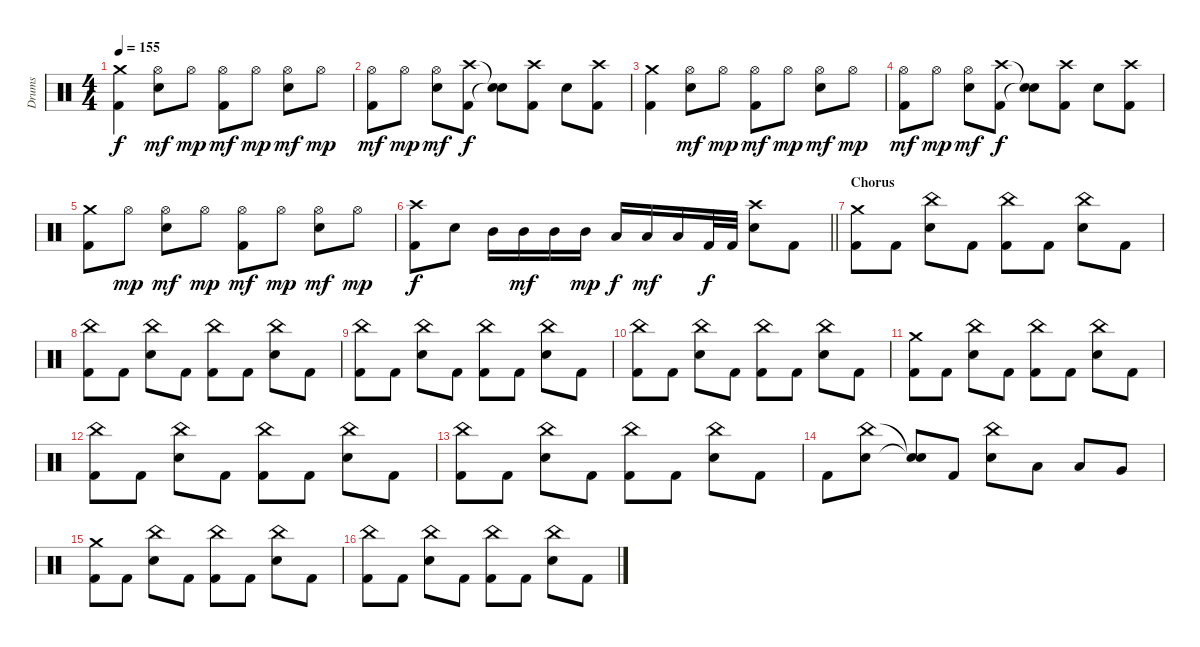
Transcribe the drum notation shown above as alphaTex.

\track ("Drums" "Drums") {instrument percussion}
\staff {score}
\articulation defaults
\ts (4 4)
\tempo 155
\clef neutral
\ks c
("Kick (hit) 2" "Crash medium (hit)").4{dy f} ("Hi-Hat (open)" "Electric Snare (hit)").8{dy mf} "Hi-Hat (open)".8{dy mp} ("Kick (hit) 2" "Hi-Hat (open)").8{dy mf} "Hi-Hat (open)".8{dy mp} ("Hi-Hat (open)" "Electric Snare (hit)").8{dy mf} "Hi-Hat (open)".8{dy mp} |
("Kick (hit) 2" "Hi-Hat (open)").8{dy mf} "Hi-Hat (open)".8{dy mp} ("Hi-Hat (open)" "Electric Snare (hit)").8{dy mf} ("Kick (hit) 2" "Crash high (hit)").8{dy f} ("Snare (hit)"{t} "Snare (hit)"{t}).8 ("Kick (hit) 2" "Crash high (hit)").8 "Electric Snare (hit)".8 ("Kick (hit) 2" "Crash high (hit)").8 |
("Kick (hit) 2" "Crash medium (hit)").4 ("Hi-Hat (open)" "Electric Snare (hit)").8{dy mf} "Hi-Hat (open)".8{dy mp} ("Kick (hit) 2" "Hi-Hat (open)").8{dy mf} "Hi-Hat (open)".8{dy mp} ("Hi-Hat (open)" "Electric Snare (hit)").8{dy mf} "Hi-Hat (open)".8{dy mp} |
("Kick (hit) 2" "Hi-Hat (open)").8{dy mf} "Hi-Hat (open)".8{dy mp} ("Hi-Hat (open)" "Electric Snare (hit)").8{dy mf} ("Kick (hit) 2" "Crash high (hit)").8{dy f} ("Snare (hit)"{t} "Snare (hit)"{t}).8 ("Kick (hit) 2" "Crash high (hit)").8 "Electric Snare (hit)".8 ("Kick (hit) 2" "Crash high (hit)").8 |
("Kick (hit) 2" "Crash medium (hit)").8 "Hi-Hat (open)".8{dy mp} ("Hi-Hat (open)" "Electric Snare (hit)").8{dy mf} "Hi-Hat (open)".8{dy mp} ("Kick (hit) 2" "Hi-Hat (open)").8{dy mf} "Hi-Hat (open)".8{dy mp} ("Hi-Hat (open)" "Electric Snare (hit)").8{dy mf} "Hi-Hat (open)".8{dy mp} |
\barLineRight lightlight
("Kick (hit) 2" "Crash high (hit)").8{dy f} "Electric Snare (hit)".8 "Mid Tom (hit)".16 "Mid Tom (hit)".16{dy mf} "Mid Tom (hit)".16 "Mid Tom (hit)".16{dy mp} "Low Tom (hit)".16{dy f} "Low Tom (hit)".16{dy mf} "Low Tom (hit)".16 "Kick (hit) 2".32{dy f} "Kick (hit) 2".32 ("Crash high (hit)" "Electric Snare (hit)").8 "Kick (hit) 2".8 |
\section ("" "Chorus")
("Kick (hit) 2" "Crash medium (hit)").8 "Kick (hit) 2".8 ("China (hit)" "Electric Snare (hit)").8 "Kick (hit) 2".8 ("Kick (hit) 2" "China (hit)").8 "Kick (hit) 2".8 ("China (hit)" "Electric Snare (hit)").8 "Kick (hit) 2".8 |
("Kick (hit) 2" "China (hit)").8 "Kick (hit) 2".8 ("China (hit)" "Electric Snare (hit)").8 "Kick (hit) 2".8 ("Kick (hit) 2" "China (hit)").8 "Kick (hit) 2".8 ("China (hit)" "Electric Snare (hit)").8 "Kick (hit) 2".8 |
("Kick (hit) 2" "China (hit)").8 "Kick (hit) 2".8 ("China (hit)" "Electric Snare (hit)").8 "Kick (hit) 2".8 ("Kick (hit) 2" "China (hit)").8 "Kick (hit) 2".8 ("China (hit)" "Electric Snare (hit)").8 "Kick (hit) 2".8 |
("Kick (hit) 2" "China (hit)").8 "Kick (hit) 2".8 ("China (hit)" "Electric Snare (hit)").8 "Kick (hit) 2".8 ("Kick (hit) 2" "China (hit)").8 "Kick (hit) 2".8 ("China (hit)" "Electric Snare (hit)").8 "Kick (hit) 2".8 |
("Kick (hit) 2" "Crash medium (hit)").8 "Kick (hit) 2".8 ("China (hit)" "Electric Snare (hit)").8 "Kick (hit) 2".8 ("Kick (hit) 2" "China (hit)").8 "Kick (hit) 2".8 ("China (hit)" "Electric Snare (hit)").8 "Kick (hit) 2".8 |
("Kick (hit) 2" "China (hit)").8 "Kick (hit) 2".8 ("China (hit)" "Electric Snare (hit)").8 "Kick (hit) 2".8 ("Kick (hit) 2" "China (hit)").8 "Kick (hit) 2".8 ("China (hit)" "Electric Snare (hit)").8 "Kick (hit) 2".8 |
("Kick (hit) 2" "China (hit)").8 "Kick (hit) 2".8 ("China (hit)" "Electric Snare (hit)").8 "Kick (hit) 2".8 ("Kick (hit) 2" "China (hit)").8 "Kick (hit) 2".8 ("China (hit)" "Electric Snare (hit)").8 "Kick (hit) 2".8 |
"Kick (hit) 2".8 ("China (hit)" "Electric Snare (hit)").8 ("Snare (hit)"{t} "Snare (hit)"{t}).8 "Kick (hit) 2".8 ("China (hit)" "Electric Snare (hit)").8 "Low Tom (hit)".8 "Low Tom (hit)".8 "Very Low Tom (hit)".8 |
("Kick (hit) 2" "Crash medium (hit)").8 "Kick (hit) 2".8 ("China (hit)" "Electric Snare (hit)").8 "Kick (hit) 2".8 ("Kick (hit) 2" "China (hit)").8 "Kick (hit) 2".8 ("China (hit)" "Electric Snare (hit)").8 "Kick (hit) 2".8 |
("Kick (hit) 2" "China (hit)").8 "Kick (hit) 2".8 ("China (hit)" "Electric Snare (hit)").8 "Kick (hit) 2".8 ("Kick (hit) 2" "China (hit)").8 "Kick (hit) 2".8 ("China (hit)" "Electric Snare (hit)").8 "Kick (hit) 2".8
